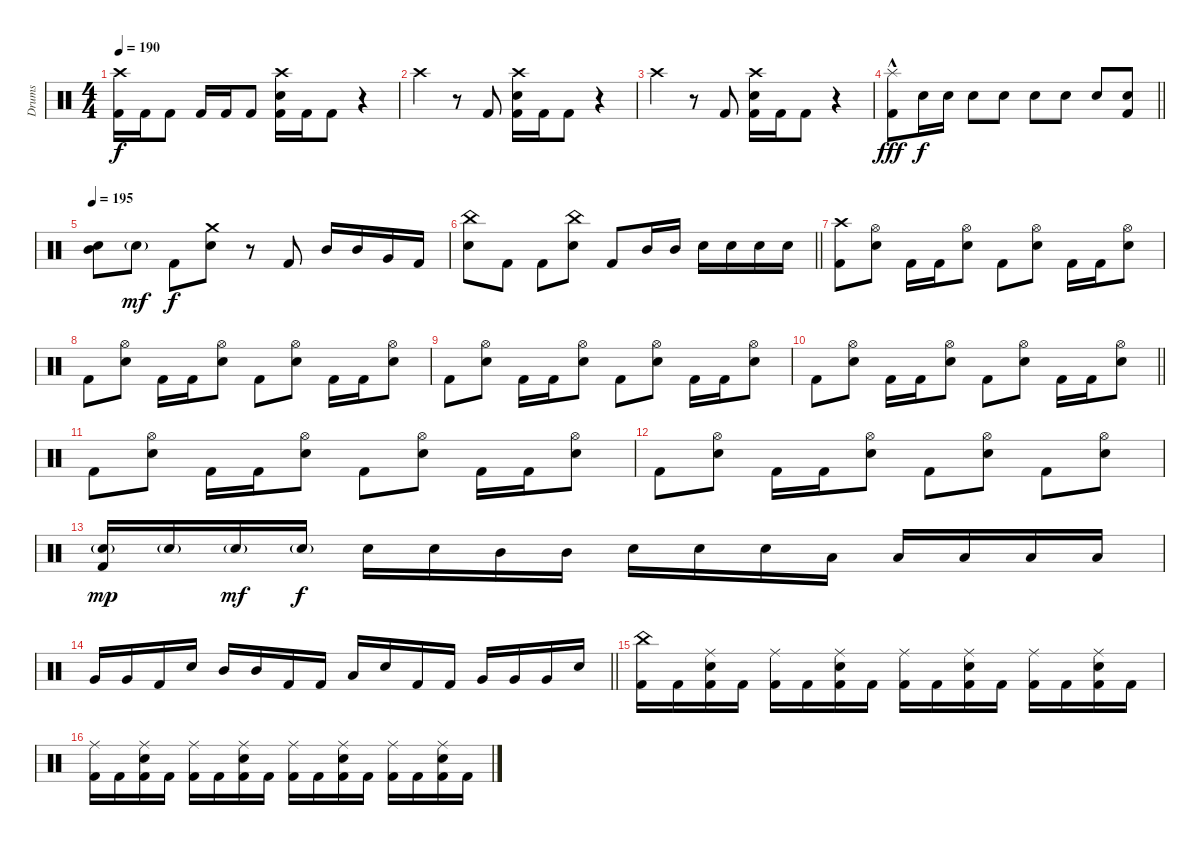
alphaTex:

\track ("Drums" "Drums") {instrument percussion}
\staff {score}
\articulation defaults
\ts (4 4)
\tempo 190
\clef neutral
\ks c
("Crash high (hit)" "Kick (hit) 2").16{dy f} "Kick (hit) 2".16 "Kick (hit) 2".8 "Kick (hit) 2".16 "Kick (hit) 2".16 "Kick (hit) 2".8 ("Crash high (hit)" "Electric Snare (hit)" "Kick (hit) 2").16 "Kick (hit) 2".16 "Kick (hit) 2".8 r.4 |
"Crash high (hit)".4 r.8 "Kick (hit) 2".8 ("Crash high (hit)" "Electric Snare (hit)" "Kick (hit) 2").16 "Kick (hit) 2".16 "Kick (hit) 2".8 r.4 |
"Crash high (hit)".4 r.8 "Kick (hit) 2".8 ("Crash high (hit)" "Electric Snare (hit)" "Kick (hit) 2").16 "Kick (hit) 2".16 "Kick (hit) 2".8 r.4 |
\barLineRight lightlight
("Splash (hit)"{hac} "Kick (hit) 2").8{dy fff} "Electric Snare (hit)".16{dy f} "Electric Snare (hit)".16 "Electric Snare (hit)".8 "Electric Snare (hit)".8 "Electric Snare (hit)".8 "Electric Snare (hit)".8 "Electric Snare (hit)".8 ("Electric Snare (hit)" "Kick (hit) 2").8 |
\tempo 195
("Mid Tom (hit)" "Electric Snare (hit)").8 "Electric Snare (hit)"{g}.8{dy mf} "Kick (hit) 2".8{dy f} ("Crash medium (hit)" "Electric Snare (hit)").8 r.8 "Kick (hit) 2".8 "Mid Tom (hit)".16 "Mid Tom (hit)".16 "Very Low Tom (hit)".16 "Kick (hit) 2".16 |
\barLineRight lightlight
("China (hit)" "Electric Snare (hit)").8 "Kick (hit) 2".8 "Kick (hit) 2".8 ("China (hit)" "Electric Snare (hit)").8 "Kick (hit) 2".8 "Mid Tom (hit)".16 "Mid Tom (hit)".16 "Electric Snare (hit)".16 "Electric Snare (hit)".16 "Electric Snare (hit)".16 "Electric Snare (hit)".16 |
("Crash high (hit)" "Kick (hit) 2").8 ("Hi-Hat (open)" "Electric Snare (hit)").8 "Kick (hit) 2".16 "Kick (hit) 2".16 ("Hi-Hat (open)" "Electric Snare (hit)").8 "Kick (hit) 2".8 ("Hi-Hat (open)" "Electric Snare (hit)").8 "Kick (hit) 2".16 "Kick (hit) 2".16 ("Hi-Hat (open)" "Electric Snare (hit)").8 |
"Kick (hit) 2".8 ("Hi-Hat (open)" "Electric Snare (hit)").8 "Kick (hit) 2".16 "Kick (hit) 2".16 ("Hi-Hat (open)" "Electric Snare (hit)").8 "Kick (hit) 2".8 ("Hi-Hat (open)" "Electric Snare (hit)").8 "Kick (hit) 2".16 "Kick (hit) 2".16 ("Hi-Hat (open)" "Electric Snare (hit)").8 |
"Kick (hit) 2".8 ("Hi-Hat (open)" "Electric Snare (hit)").8 "Kick (hit) 2".16 "Kick (hit) 2".16 ("Hi-Hat (open)" "Electric Snare (hit)").8 "Kick (hit) 2".8 ("Hi-Hat (open)" "Electric Snare (hit)").8 "Kick (hit) 2".16 "Kick (hit) 2".16 ("Hi-Hat (open)" "Electric Snare (hit)").8 |
\barLineRight lightlight "Kick (hit) 2".8
("Hi-Hat (open)" "Electric Snare (hit)").8 "Kick (hit) 2".16 "Kick (hit) 2".16 ("Hi-Hat (open)" "Electric Snare (hit)").8 "Kick (hit) 2".8 ("Hi-Hat (open)" "Electric Snare (hit)").8 "Kick (hit) 2".16 "Kick (hit) 2".16 ("Hi-Hat (open)" "Electric Snare (hit)").8 |
"Kick (hit) 2".8 ("Hi-Hat (open)" "Electric Snare (hit)").8 "Kick (hit) 2".16 "Kick (hit) 2".16 ("Hi-Hat (open)" "Electric Snare (hit)").8 "Kick (hit) 2".8 ("Hi-Hat (open)" "Electric Snare (hit)").8 "Kick (hit) 2".16 "Kick (hit) 2".16 ("Hi-Hat (open)" "Electric Snare (hit)").8 |
"Kick (hit) 2".8 ("Hi-Hat (open)" "Electric Snare (hit)").8 "Kick (hit) 2".16 "Kick (hit) 2".16 ("Hi-Hat (open)" "Electric Snare (hit)").8 "Kick (hit) 2".8 ("Hi-Hat (open)" "Electric Snare (hit)").8 "Kick (hit) 2".8 ("Hi-Hat (open)" "Electric Snare (hit)").8 |
("Electric Snare (hit)"{g} "Kick (hit) 2").16{dy mp} "Electric Snare (hit)"{g}.16 "Electric Snare (hit)"{g}.16{dy mf} "Electric Snare (hit)"{g}.16{dy f} "Electric Snare (hit)".16 "Electric Snare (hit)".16 "Mid Tom (hit)".16 "Mid Tom (hit)".16 "Electric Snare (hit)".16 "Electric Snare (hit)".16 "Electric Snare (hit)".16 "Low Tom (hit)".16 "Low Tom (hit)".16 "Low Tom (hit)".16 "Low Tom (hit)".16 "Low Tom (hit)".16 |
\barLineRight lightlight "Very Low Tom (hit)".16 "Very Low Tom (hit)".16 "Kick (hit) 2".16 "Electric Snare (hit)".16 "Mid Tom (hit)".16 "Mid Tom (hit)".16 "Kick (hit) 2".16 "Kick (hit) 2".16 "Low Tom (hit)".16 "Electric Snare (hit)".16 "Kick (hit) 2".16 "Kick (hit) 2".16 "Very Low Tom (hit)".16 "Very Low Tom (hit)".16 "Very Low Tom (hit)".16 "Electric Snare (hit)".16
|
("China (hit)" "Kick (hit) 2").16 "Kick (hit) 2".16 ("Ride (middle)" "Electric Snare (hit)" "Kick (hit) 2").16 "Kick (hit) 2".16 ("Ride (middle)" "Kick (hit) 2").16 "Kick (hit) 2".16 ("Ride (middle)" "Electric Snare (hit)" "Kick (hit) 2").16 "Kick (hit) 2".16 ("Ride (middle)" "Kick (hit) 2").16 "Kick (hit) 2".16 ("Ride (middle)" "Electric Snare (hit)" "Kick (hit) 2").16 "Kick (hit) 2".16 ("Ride (middle)" "Kick (hit) 2").16 "Kick (hit) 2".16 ("Ride (middle)" "Electric Snare (hit)" "Kick (hit) 2").16 "Kick (hit) 2".16 |
("Ride (middle)" "Kick (hit) 2").16 "Kick (hit) 2".16 ("Ride (middle)" "Electric Snare (hit)" "Kick (hit) 2").16 "Kick (hit) 2".16 ("Ride (middle)" "Kick (hit) 2").16 "Kick (hit) 2".16 ("Ride (middle)" "Electric Snare (hit)" "Kick (hit) 2").16 "Kick (hit) 2".16 ("Ride (middle)" "Kick (hit) 2").16 "Kick (hit) 2".16 ("Ride (middle)" "Electric Snare (hit)" "Kick (hit) 2").16 "Kick (hit) 2".16 ("Ride (middle)" "Kick (hit) 2").16 "Kick (hit) 2".16 ("Ride (middle)" "Electric Snare (hit)" "Kick (hit) 2").16 "Kick (hit) 2".16
